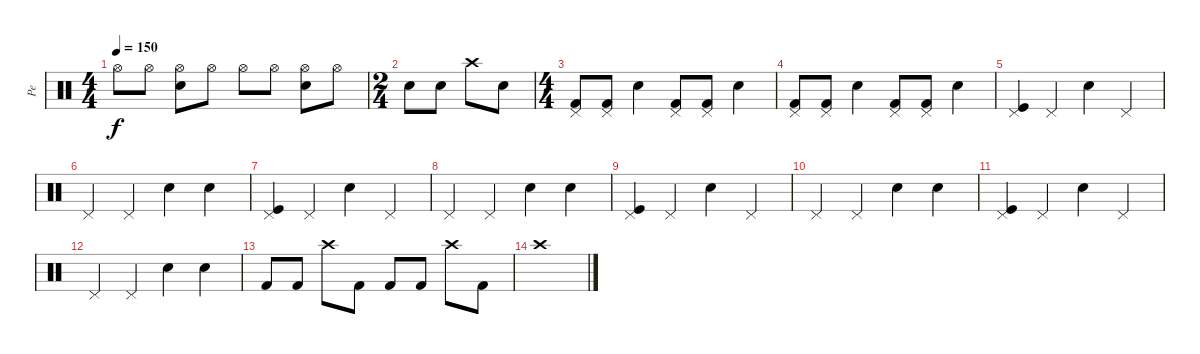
\track ("Pe" "Pe") {instrument percussion}
\staff {score}
\articulation defaults
\ts (4 4)
\tempo 150
\clef neutral
\ks c "Hi-Hat (open)".8{dy f} "Hi-Hat (open)".8
("Electric Snare (hit)" "Hi-Hat (open)").8 "Hi-Hat (open)".8 "Hi-Hat (open)".8 "Hi-Hat (open)".8 ("Electric Snare (hit)" "Hi-Hat (open)").8 "Hi-Hat (open)".8 |
\ts (2 4)
"Electric Snare (hit)".8 "Electric Snare (hit)".8 "Crash high (hit)".8 "Electric Snare (hit)".8 |
\ts (4 4)
("Kick (hit) 2" "Pedal Hi-Hat (hit)").8 ("Kick (hit) 2" "Pedal Hi-Hat (hit)").8 "Electric Snare (hit)".4 ("Kick (hit) 2" "Pedal Hi-Hat (hit)").8 ("Kick (hit) 2" "Pedal Hi-Hat (hit)").8 "Electric Snare (hit)".4 |
("Kick (hit) 2" "Pedal Hi-Hat (hit)").8 ("Kick (hit) 2" "Pedal Hi-Hat (hit)").8 "Electric Snare (hit)".4 ("Kick (hit) 2" "Pedal Hi-Hat (hit)").8 ("Kick (hit) 2" "Pedal Hi-Hat (hit)").8 "Electric Snare (hit)".4 |
("Pedal Hi-Hat (hit)" "Kick (hit)").4 "Pedal Hi-Hat (hit)".4 "Electric Snare (hit)".4 "Pedal Hi-Hat (hit)".4 |
"Pedal Hi-Hat (hit)".4 "Pedal Hi-Hat (hit)".4 "Electric Snare (hit)".4 "Electric Snare (hit)".4 |
("Pedal Hi-Hat (hit)" "Kick (hit)").4 "Pedal Hi-Hat (hit)".4 "Electric Snare (hit)".4 "Pedal Hi-Hat (hit)".4 |
"Pedal Hi-Hat (hit)".4 "Pedal Hi-Hat (hit)".4 "Electric Snare (hit)".4 "Electric Snare (hit)".4 |
("Pedal Hi-Hat (hit)" "Kick (hit)").4 "Pedal Hi-Hat (hit)".4 "Electric Snare (hit)".4 "Pedal Hi-Hat (hit)".4 |
"Pedal Hi-Hat (hit)".4 "Pedal Hi-Hat (hit)".4 "Electric Snare (hit)".4 "Electric Snare (hit)".4 |
("Pedal Hi-Hat (hit)" "Kick (hit)").4 "Pedal Hi-Hat (hit)".4 "Electric Snare (hit)".4 "Pedal Hi-Hat (hit)".4 |
"Pedal Hi-Hat (hit)".4 "Pedal Hi-Hat (hit)".4 "Electric Snare (hit)".4 "Electric Snare (hit)".4 |
"Kick (hit) 2".8 "Kick (hit) 2".8 "Crash high (hit)".8 "Kick (hit) 2".8 "Kick (hit) 2".8 "Kick (hit) 2".8 "Crash high (hit)".8 "Kick (hit) 2".8 |
"Crash high (hit)".1
